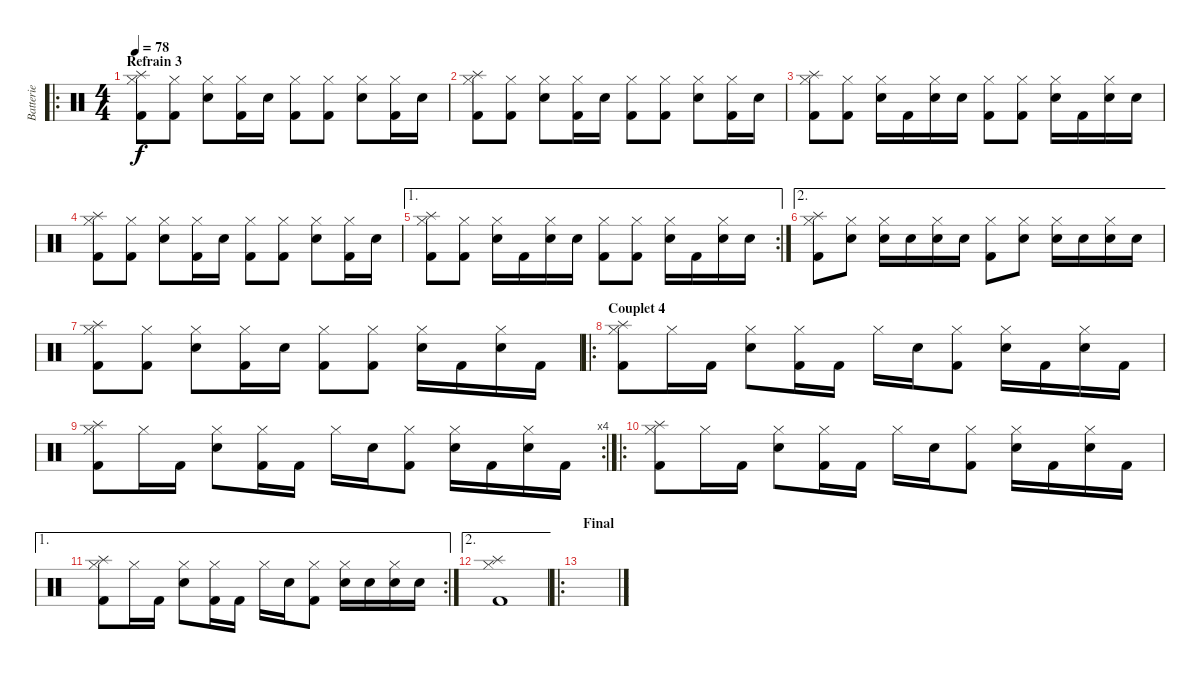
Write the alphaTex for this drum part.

\track ("Batterie" "Batterie") {instrument percussion}
\staff {score}
\articulation defaults
\ro
\ts (4 4)
\section ("" "Refrain 3")
\tempo 78
\clef neutral
\ks c
("Splash (hit)" "Hi-Hat (closed)" "Kick (hit) 2").8{dy f} ("Hi-Hat (closed)" "Kick (hit) 2").8 ("Hi-Hat (closed)" "Snare (hit) 2").8 ("Hi-Hat (closed)" "Kick (hit) 2").16 "Snare (hit) 2".16 ("Hi-Hat (closed)" "Kick (hit) 2").8 ("Hi-Hat (closed)" "Kick (hit) 2").8 ("Hi-Hat (closed)" "Snare (hit) 2").8 ("Hi-Hat (closed)" "Kick (hit) 2").16 "Snare (hit) 2".16 |
("Splash (hit)" "Hi-Hat (closed)" "Kick (hit) 2").8 ("Hi-Hat (closed)" "Kick (hit) 2").8 ("Hi-Hat (closed)" "Snare (hit) 2").8 ("Hi-Hat (closed)" "Kick (hit) 2").16 "Snare (hit) 2".16 ("Hi-Hat (closed)" "Kick (hit) 2").8 ("Hi-Hat (closed)" "Kick (hit) 2").8 ("Hi-Hat (closed)" "Snare (hit) 2").8 ("Hi-Hat (closed)" "Kick (hit) 2").16 "Snare (hit) 2".16 |
("Splash (hit)" "Hi-Hat (closed)" "Kick (hit) 2").8 ("Hi-Hat (closed)" "Kick (hit) 2").8 ("Hi-Hat (closed)" "Snare (hit) 2").16 "Kick (hit) 2".16 ("Hi-Hat (closed)" "Snare (hit) 2").16 "Snare (hit) 2".16 ("Hi-Hat (closed)" "Kick (hit) 2").8 ("Hi-Hat (closed)" "Kick (hit) 2").8 ("Hi-Hat (closed)" "Snare (hit) 2").16 "Kick (hit) 2".16 ("Hi-Hat (closed)" "Snare (hit) 2").16 "Snare (hit) 2".16 |
("Splash (hit)" "Hi-Hat (closed)" "Kick (hit) 2").8 ("Hi-Hat (closed)" "Kick (hit) 2").8 ("Hi-Hat (closed)" "Snare (hit) 2").8 ("Hi-Hat (closed)" "Kick (hit) 2").16 "Snare (hit) 2".16 ("Hi-Hat (closed)" "Kick (hit) 2").8 ("Hi-Hat (closed)" "Kick (hit) 2").8 ("Hi-Hat (closed)" "Snare (hit) 2").8 ("Hi-Hat (closed)" "Kick (hit) 2").16 "Snare (hit) 2".16 |
\ae 1
\rc 2
("Splash (hit)" "Hi-Hat (closed)" "Kick (hit) 2").8 ("Hi-Hat (closed)" "Kick (hit) 2").8 ("Hi-Hat (closed)" "Snare (hit) 2").16 "Kick (hit) 2".16 ("Hi-Hat (closed)" "Snare (hit) 2").16 "Snare (hit) 2".16 ("Hi-Hat (closed)" "Kick (hit) 2").8 ("Hi-Hat (closed)" "Kick (hit) 2").8 ("Hi-Hat (closed)" "Snare (hit) 2").16 "Kick (hit) 2".16 ("Hi-Hat (closed)" "Snare (hit) 2").16 "Snare (hit) 2".16 |
\ae 2
("Splash (hit)" "Hi-Hat (closed)" "Kick (hit) 2").8 ("Hi-Hat (closed)" "Snare (hit) 2").8 ("Hi-Hat (closed)" "Snare (hit) 2").16 "Snare (hit) 2".16 ("Hi-Hat (closed)" "Snare (hit) 2").16 "Snare (hit) 2".16 ("Hi-Hat (closed)" "Kick (hit) 2").8 ("Hi-Hat (closed)" "Snare (hit) 2").8 ("Hi-Hat (closed)" "Snare (hit) 2").16 "Snare (hit) 2".16 ("Hi-Hat (closed)" "Snare (hit) 2").16 "Snare (hit) 2".16 |
("Splash (hit)" "Hi-Hat (closed)" "Kick (hit) 2").8 ("Hi-Hat (closed)" "Kick (hit) 2").8 ("Hi-Hat (closed)" "Snare (hit) 2").8 ("Hi-Hat (closed)" "Kick (hit) 2").16 "Snare (hit) 2".16 ("Hi-Hat (closed)" "Kick (hit) 2").8 ("Hi-Hat (closed)" "Kick (hit) 2").8 ("Hi-Hat (closed)" "Snare (hit) 2").16 "Kick (hit) 2".16 ("Hi-Hat (closed)" "Snare (hit) 2").16 "Kick (hit) 2".16 |
\ro
\section ("" "Couplet 4")
("Splash (hit)" "Hi-Hat (closed)" "Kick (hit) 2").8 "Hi-Hat (closed)".16 "Kick (hit) 2".16 ("Hi-Hat (closed)" "Snare (hit) 2").8 ("Hi-Hat (closed)" "Kick (hit) 2").16 "Kick (hit) 2".16 "Hi-Hat (closed)".16 "Snare (hit) 2".16 ("Hi-Hat (closed)" "Kick (hit) 2").8 ("Hi-Hat (closed)" "Snare (hit) 2").16 "Kick (hit) 2".16 ("Hi-Hat (closed)" "Snare (hit) 2").16 "Kick (hit) 2".16 |
\rc 4
("Splash (hit)" "Hi-Hat (closed)" "Kick (hit) 2").8 "Hi-Hat (closed)".16 "Kick (hit) 2".16 ("Hi-Hat (closed)" "Snare (hit) 2").8 ("Hi-Hat (closed)" "Kick (hit) 2").16 "Kick (hit) 2".16 "Hi-Hat (closed)".16 "Snare (hit) 2".16 ("Hi-Hat (closed)" "Kick (hit) 2").8 ("Hi-Hat (closed)" "Snare (hit) 2").16 "Kick (hit) 2".16 ("Hi-Hat (closed)" "Snare (hit) 2").16 "Kick (hit) 2".16 |
\ro
("Splash (hit)" "Hi-Hat (closed)" "Kick (hit) 2").8 "Hi-Hat (closed)".16 "Kick (hit) 2".16 ("Hi-Hat (closed)" "Snare (hit) 2").8 ("Hi-Hat (closed)" "Kick (hit) 2").16 "Kick (hit) 2".16 "Hi-Hat (closed)".16 "Snare (hit) 2".16 ("Hi-Hat (closed)" "Kick (hit) 2").8 ("Hi-Hat (closed)" "Snare (hit) 2").16 "Kick (hit) 2".16 ("Hi-Hat (closed)" "Snare (hit) 2").16 "Kick (hit) 2".16 |
\ae 1
\rc 2
("Splash (hit)" "Hi-Hat (closed)" "Kick (hit) 2").8 "Hi-Hat (closed)".16 "Kick (hit) 2".16 ("Hi-Hat (closed)" "Snare (hit) 2").8 ("Hi-Hat (closed)" "Kick (hit) 2").16 "Kick (hit) 2".16 "Hi-Hat (closed)".16 "Snare (hit) 2".16 ("Hi-Hat (closed)" "Kick (hit) 2").8 ("Hi-Hat (closed)" "Snare (hit) 2").16 "Snare (hit) 2".16 ("Hi-Hat (closed)" "Snare (hit) 2").16 "Snare (hit) 2".16 |
\ae 2
("Splash (hit)" "Hi-Hat (closed)" "Kick (hit) 2").1 |
\ro
\section ("" "Final")
